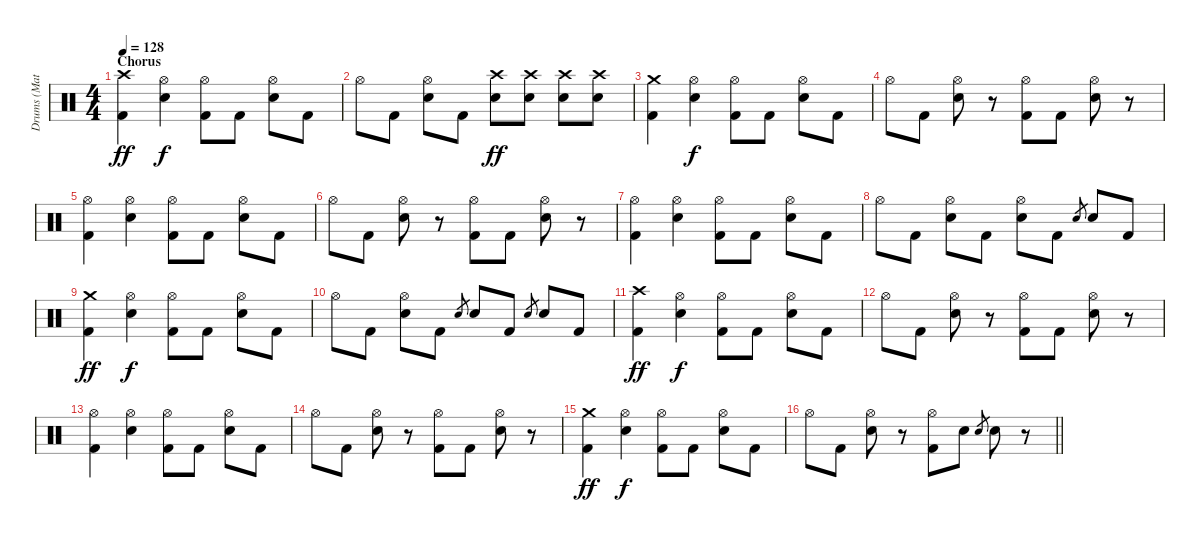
\track ("Drums (Matt Sorum)" "Drums (Mat") {instrument percussion}
\staff {score}
\articulation defaults
\ts (4 4)
\section ("" "Chorus")
\tempo 128
\clef neutral
\ks c
("Crash high (hit)" "Kick (hit) 2").4{dy ff} ("Hi-Hat (open)" "Snare (hit) 2").4{dy f} ("Hi-Hat (open)" "Kick (hit) 2").8 "Kick (hit) 2".8 ("Hi-Hat (open)" "Snare (hit) 2").8 "Kick (hit) 2".8 |
"Hi-Hat (open)".8 "Kick (hit) 2".8 ("Hi-Hat (open)" "Snare (hit) 2").8 "Kick (hit) 2".8 ("Crash high (hit)" "Snare (hit) 2").8{dy ff} ("Crash high (hit)" "Snare (hit) 2").8 ("Crash high (hit)" "Snare (hit) 2").8 ("Crash high (hit)" "Snare (hit) 2").8 |
("Crash medium (hit)" "Kick (hit) 2").4 ("Hi-Hat (open)" "Snare (hit) 2").4{dy f} ("Hi-Hat (open)" "Kick (hit) 2").8 "Kick (hit) 2".8 ("Hi-Hat (open)" "Snare (hit) 2").8 "Kick (hit) 2".8 |
"Hi-Hat (open)".8 "Kick (hit) 2".8 ("Hi-Hat (open)" "Snare (hit) 2").8 r.8 ("Hi-Hat (open)" "Kick (hit) 2").8 "Kick (hit) 2".8 ("Hi-Hat (open)" "Snare (hit) 2").8 r.8 |
("Hi-Hat (open)" "Kick (hit) 2").4 ("Hi-Hat (open)" "Snare (hit) 2").4 ("Hi-Hat (open)" "Kick (hit) 2").8 "Kick (hit) 2".8 ("Hi-Hat (open)" "Snare (hit) 2").8 "Kick (hit) 2".8 |
"Hi-Hat (open)".8 "Kick (hit) 2".8 ("Hi-Hat (open)" "Snare (hit) 2").8 r.8 ("Hi-Hat (open)" "Kick (hit) 2").8 "Kick (hit) 2".8 ("Hi-Hat (open)" "Snare (hit) 2").8 r.8 |
("Hi-Hat (open)" "Kick (hit) 2").4 ("Hi-Hat (open)" "Snare (hit) 2").4 ("Hi-Hat (open)" "Kick (hit) 2").8 "Kick (hit) 2".8 ("Hi-Hat (open)" "Snare (hit) 2").8 "Kick (hit) 2".8 |
"Hi-Hat (open)".8 "Kick (hit) 2".8 ("Hi-Hat (open)" "Snare (hit) 2").8 "Kick (hit) 2".8 ("Hi-Hat (open)" "Snare (hit) 2").8 "Kick (hit) 2".8 "Snare (hit) 2".8{gr} "Snare (hit) 2".8 "Kick (hit) 2".8 |
("Crash medium (hit)" "Kick (hit) 2").4{dy ff} ("Hi-Hat (open)" "Snare (hit) 2").4{dy f} ("Hi-Hat (open)" "Kick (hit) 2").8 "Kick (hit) 2".8 ("Hi-Hat (open)" "Snare (hit) 2").8 "Kick (hit) 2".8 |
"Hi-Hat (open)".8 "Kick (hit) 2".8 ("Hi-Hat (open)" "Snare (hit) 2").8 "Kick (hit) 2".8 "Snare (hit) 2".8{gr} "Snare (hit) 2".8 "Kick (hit) 2".8 "Snare (hit) 2".8{gr} "Snare (hit) 2".8 "Kick (hit) 2".8 |
("Crash high (hit)" "Kick (hit) 2").4{dy ff} ("Hi-Hat (open)" "Snare (hit) 2").4{dy f} ("Hi-Hat (open)" "Kick (hit) 2").8 "Kick (hit) 2".8 ("Hi-Hat (open)" "Snare (hit) 2").8 "Kick (hit) 2".8 |
"Hi-Hat (open)".8 "Kick (hit) 2".8 ("Hi-Hat (open)" "Snare (hit) 2").8 r.8 ("Hi-Hat (open)" "Kick (hit) 2").8 "Kick (hit) 2".8 ("Hi-Hat (open)" "Snare (hit) 2").8 r.8 |
("Hi-Hat (open)" "Kick (hit) 2").4 ("Hi-Hat (open)" "Snare (hit) 2").4 ("Hi-Hat (open)" "Kick (hit) 2").8 "Kick (hit) 2".8 ("Hi-Hat (open)" "Snare (hit) 2").8 "Kick (hit) 2".8 |
"Hi-Hat (open)".8 "Kick (hit) 2".8 ("Hi-Hat (open)" "Snare (hit) 2").8 r.8 ("Hi-Hat (open)" "Kick (hit) 2").8 "Kick (hit) 2".8 ("Hi-Hat (open)" "Snare (hit) 2").8 r.8 |
("Crash medium (hit)" "Kick (hit) 2").4{dy ff} ("Hi-Hat (open)" "Snare (hit) 2").4{dy f} ("Hi-Hat (open)" "Kick (hit) 2").8 "Kick (hit) 2".8 ("Hi-Hat (open)" "Snare (hit) 2").8 "Kick (hit) 2".8 |
\barLineRight lightlight "Hi-Hat (open)".8 "Kick (hit) 2".8
("Hi-Hat (open)" "Snare (hit) 2").8 r.8 ("Hi-Hat (open)" "Kick (hit) 2").8 "Snare (hit) 2".8 "Snare (hit) 2".8{gr} "Snare (hit) 2".8 r.8
